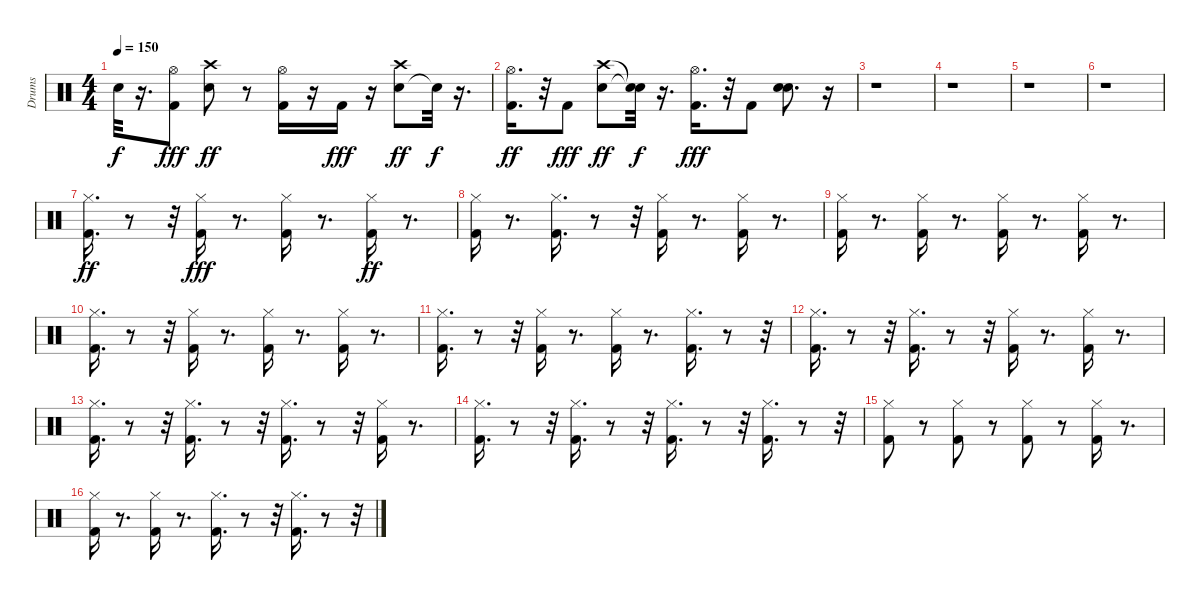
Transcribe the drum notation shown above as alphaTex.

\track ("Drums" "Drums") {instrument percussion}
\staff {score}
\articulation defaults
\ts (4 4)
\tempo 150
\clef neutral
\ks c "Snare (hit)"{t}.32{dy f}
r.16{d} ("Kick (hit) 2" "Hi-Hat (open)").8{dy fff} ("Snare (hit) 2" "Crash high (hit)").8{dy ff} r.8 ("Kick (hit) 2" "Hi-Hat (open)").16 r.16 "Kick (hit) 2".16{dy fff} r.16 ("Snare (hit) 2" "Crash high (hit)").8{dy ff} "Snare (hit)"{t}.32{dy f} r.16{d} |
("Kick (hit) 2" "Hi-Hat (open)").16{d dy ff} r.32 "Kick (hit) 2".8{dy fff} ("Snare (hit) 2" "Crash high (hit)").8{dy ff} ("Snare (hit)"{t} "Snare (hit)"{t}).32{dy f} r.16{d} ("Kick (hit) 2" "Hi-Hat (open)").16{d dy fff} r.32 "Kick (hit) 2".8 ("Snare (hit) 2" "Electric Snare (hit)").8{d} r.16 |
r.1 |
r.1 |
r.1 |
r.1 |
("Kick (hit) 2" "Hi-Hat (closed)").16{d dy ff} r.8 r.32 ("Kick (hit) 2" "Hi-Hat (closed)").16{dy fff} r.8{d} ("Kick (hit) 2" "Hi-Hat (closed)").16 r.8{d} ("Kick (hit) 2" "Hi-Hat (closed)").16{dy ff} r.8{d} |
("Kick (hit) 2" "Hi-Hat (closed)").16 r.8{d} ("Kick (hit) 2" "Hi-Hat (closed)").16{d} r.8 r.32 ("Kick (hit) 2" "Hi-Hat (closed)").16 r.8{d} ("Kick (hit) 2" "Hi-Hat (closed)").16 r.8{d} |
("Kick (hit) 2" "Hi-Hat (closed)").16 r.8{d} ("Kick (hit) 2" "Hi-Hat (closed)").16 r.8{d} ("Kick (hit) 2" "Hi-Hat (closed)").16 r.8{d} ("Kick (hit) 2" "Hi-Hat (closed)").16 r.8{d} |
("Kick (hit) 2" "Hi-Hat (closed)").16{d} r.8 r.32 ("Kick (hit) 2" "Hi-Hat (closed)").16 r.8{d} ("Kick (hit) 2" "Hi-Hat (closed)").16 r.8{d} ("Kick (hit) 2" "Hi-Hat (closed)").16 r.8{d} |
("Kick (hit) 2" "Hi-Hat (closed)").16{d} r.8 r.32 ("Kick (hit) 2" "Hi-Hat (closed)").16 r.8{d} ("Kick (hit) 2" "Hi-Hat (closed)").16 r.8{d} ("Kick (hit) 2" "Hi-Hat (closed)").16{d} r.8 r.32 |
("Kick (hit) 2" "Hi-Hat (closed)").16{d} r.8 r.32 ("Kick (hit) 2" "Hi-Hat (closed)").16{d} r.8 r.32 ("Kick (hit) 2" "Hi-Hat (closed)").16 r.8{d} ("Kick (hit) 2" "Hi-Hat (closed)").16 r.8{d} |
("Kick (hit) 2" "Hi-Hat (closed)").16{d} r.8 r.32 ("Kick (hit) 2" "Hi-Hat (closed)").16{d} r.8 r.32 ("Kick (hit) 2" "Hi-Hat (closed)").16{d} r.8 r.32 ("Kick (hit) 2" "Hi-Hat (closed)").16 r.8{d} |
("Kick (hit) 2" "Hi-Hat (closed)").16{d} r.8 r.32 ("Kick (hit) 2" "Hi-Hat (closed)").16{d} r.8 r.32 ("Kick (hit) 2" "Hi-Hat (closed)").16{d} r.8 r.32 ("Kick (hit) 2" "Hi-Hat (closed)").16{d} r.8 r.32 |
("Kick (hit) 2" "Hi-Hat (closed)").8 r.8 ("Kick (hit) 2" "Hi-Hat (closed)").8 r.8 ("Kick (hit) 2" "Hi-Hat (closed)").8 r.8 ("Kick (hit) 2" "Hi-Hat (closed)").16 r.8{d} |
("Kick (hit) 2" "Hi-Hat (closed)").16 r.8{d} ("Kick (hit) 2" "Hi-Hat (closed)").16 r.8{d} ("Kick (hit) 2" "Hi-Hat (closed)").16{d} r.8 r.32 ("Kick (hit) 2" "Hi-Hat (closed)").16{d} r.8 r.32
